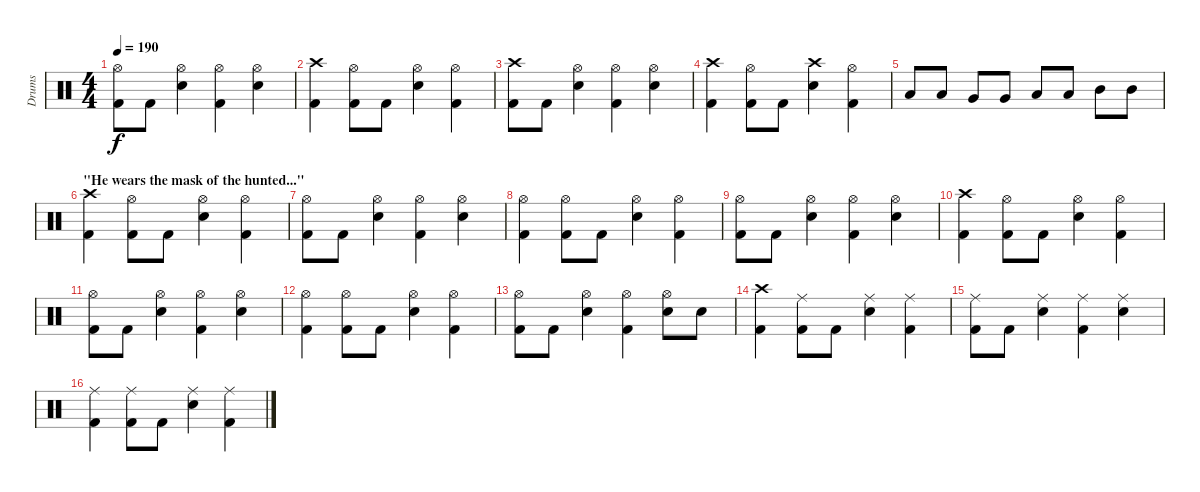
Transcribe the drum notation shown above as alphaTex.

\track ("Drums" "Drums") {instrument percussion}
\staff {score}
\articulation defaults
\ts (4 4)
\tempo 190
\clef neutral
\ks c
("Hi-Hat (open)" "Kick (hit) 2").8{dy f} "Kick (hit) 2".8 ("Hi-Hat (open)" "Snare (hit) 2").4 ("Hi-Hat (open)" "Kick (hit) 2").4 ("Hi-Hat (open)" "Snare (hit) 2").4 |
("Crash high (hit)" "Kick (hit) 2").4 ("Hi-Hat (open)" "Kick (hit) 2").8 "Kick (hit) 2".8 ("Hi-Hat (open)" "Snare (hit) 2").4 ("Hi-Hat (open)" "Kick (hit) 2").4 |
("Crash high (hit)" "Kick (hit) 2").8 "Kick (hit) 2".8 ("Hi-Hat (open)" "Snare (hit) 2").4 ("Hi-Hat (open)" "Kick (hit) 2").4 ("Hi-Hat (open)" "Snare (hit) 2").4 |
("Crash high (hit)" "Kick (hit) 2").4 ("Hi-Hat (open)" "Kick (hit) 2").8 "Kick (hit) 2".8 ("Crash high (hit)" "Snare (hit) 2").4 ("Hi-Hat (open)" "Kick (hit) 2").4 |
"Low Floor Tom (hit)".8 "Low Floor Tom (hit)".8 "Very Low Tom (hit)".8 "Very Low Tom (hit)".8 "Low Tom (hit)".8 "Low Tom (hit)".8 "Mid Tom (hit)".8 "Mid Tom (hit)".8 |
\section ("" "\"He wears the mask of the hunted...\"")
("Crash high (hit)" "Kick (hit) 2").4 ("Hi-Hat (open)" "Kick (hit) 2").8 "Kick (hit) 2".8 ("Hi-Hat (open)" "Snare (hit) 2").4 ("Hi-Hat (open)" "Kick (hit) 2").4 |
("Hi-Hat (open)" "Kick (hit) 2").8 "Kick (hit) 2".8 ("Hi-Hat (open)" "Snare (hit) 2").4 ("Hi-Hat (open)" "Kick (hit) 2").4 ("Hi-Hat (open)" "Snare (hit) 2").4 |
("Hi-Hat (open)" "Kick (hit) 2").4 ("Hi-Hat (open)" "Kick (hit) 2").8 "Kick (hit) 2".8 ("Hi-Hat (open)" "Snare (hit) 2").4 ("Hi-Hat (open)" "Kick (hit) 2").4 |
("Hi-Hat (open)" "Kick (hit) 2").8 "Kick (hit) 2".8 ("Hi-Hat (open)" "Snare (hit) 2").4 ("Hi-Hat (open)" "Kick (hit) 2").4 ("Hi-Hat (open)" "Snare (hit) 2").4 |
("Crash high (hit)" "Kick (hit) 2").4 ("Hi-Hat (open)" "Kick (hit) 2").8 "Kick (hit) 2".8 ("Hi-Hat (open)" "Snare (hit) 2").4 ("Hi-Hat (open)" "Kick (hit) 2").4 |
("Hi-Hat (open)" "Kick (hit) 2").8 "Kick (hit) 2".8 ("Hi-Hat (open)" "Snare (hit) 2").4 ("Hi-Hat (open)" "Kick (hit) 2").4 ("Hi-Hat (open)" "Snare (hit) 2").4 |
("Hi-Hat (open)" "Kick (hit) 2").4 ("Hi-Hat (open)" "Kick (hit) 2").8 "Kick (hit) 2".8 ("Hi-Hat (open)" "Snare (hit) 2").4 ("Hi-Hat (open)" "Kick (hit) 2").4 |
("Hi-Hat (open)" "Kick (hit) 2").8 "Kick (hit) 2".8 ("Hi-Hat (open)" "Snare (hit) 2").4 ("Hi-Hat (open)" "Kick (hit) 2").4 ("Hi-Hat (open)" "Snare (hit) 2").8 "Snare (hit) 2".8 |
("Crash high (hit)" "Kick (hit) 2").4 ("Ride (middle)" "Kick (hit) 2").8 "Kick (hit) 2".8 ("Ride (middle)" "Snare (hit) 2").4 ("Ride (middle)" "Kick (hit) 2").4 |
("Ride (middle)" "Kick (hit) 2").8 "Kick (hit) 2".8 ("Ride (middle)" "Snare (hit) 2").4 ("Ride (middle)" "Kick (hit) 2").4 ("Ride (middle)" "Snare (hit) 2").4 |
("Ride (middle)" "Kick (hit) 2").4 ("Ride (middle)" "Kick (hit) 2").8 "Kick (hit) 2".8 ("Ride (middle)" "Snare (hit) 2").4 ("Ride (middle)" "Kick (hit) 2").4
